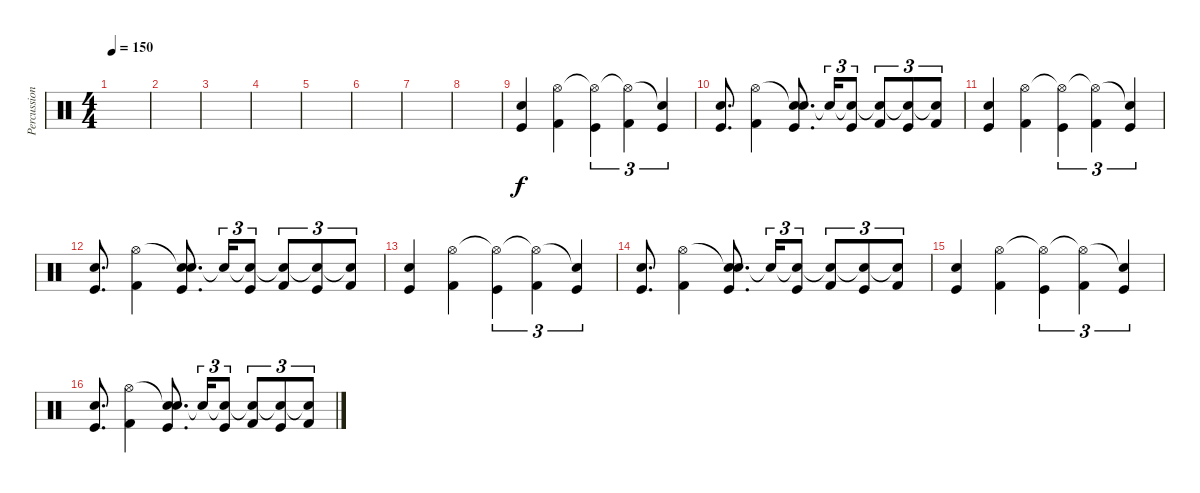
\track ("Percussion" "Percussion") {instrument percussion}
\staff {score}
\articulation defaults
\ts (4 4)
\tempo 150
\clef neutral
\ks c
|
|
|
|
|
|
|
|
("Snare (hit) 2" "Kick (hit)").4 ("Hi-Hat (open)" "Kick (hit) 2").4 ("Hi-Hat (open)"{t} "Kick (hit)").4{tu (3 2)} ("Hi-Hat (open)"{t} "Kick (hit) 2").4{tu (3 2)} ("Snare (hit)"{t} "Kick (hit)").4{tu (3 2)} |
("Snare (hit) 2" "Kick (hit)").8{d} ("Hi-Hat (open)" "Kick (hit) 2").4 ("Snare (hit)"{t} "Snare (hit) 2" "Kick (hit)").8{d} "Snare (hit)"{t}.16{tu (3 2)} ("Snare (hit)"{t} "Kick (hit)").8{tu (3 2)} ("Snare (hit)"{t} "Kick (hit) 2").8{tu (3 2)} ("Snare (hit)"{t} "Kick (hit)").8{tu (3 2)} ("Snare (hit)"{t} "Kick (hit) 2").8{tu (3 2)} |
("Snare (hit) 2" "Kick (hit)").4 ("Hi-Hat (open)" "Kick (hit) 2").4 ("Hi-Hat (open)"{t} "Kick (hit)").4{tu (3 2)} ("Hi-Hat (open)"{t} "Kick (hit) 2").4{tu (3 2)} ("Snare (hit)"{t} "Kick (hit)").4{tu (3 2)} |
("Snare (hit) 2" "Kick (hit)").8{d} ("Hi-Hat (open)" "Kick (hit) 2").4 ("Snare (hit)"{t} "Snare (hit) 2" "Kick (hit)").8{d} "Snare (hit)"{t}.16{tu (3 2)} ("Snare (hit)"{t} "Kick (hit)").8{tu (3 2)} ("Snare (hit)"{t} "Kick (hit) 2").8{tu (3 2)} ("Snare (hit)"{t} "Kick (hit)").8{tu (3 2)} ("Snare (hit)"{t} "Kick (hit) 2").8{tu (3 2)} |
("Snare (hit) 2" "Kick (hit)").4 ("Hi-Hat (open)" "Kick (hit) 2").4 ("Hi-Hat (open)"{t} "Kick (hit)").4{tu (3 2)} ("Hi-Hat (open)"{t} "Kick (hit) 2").4{tu (3 2)} ("Snare (hit)"{t} "Kick (hit)").4{tu (3 2)} |
("Snare (hit) 2" "Kick (hit)").8{d} ("Hi-Hat (open)" "Kick (hit) 2").4 ("Snare (hit)"{t} "Snare (hit) 2" "Kick (hit)").8{d} "Snare (hit)"{t}.16{tu (3 2)} ("Snare (hit)"{t} "Kick (hit)").8{tu (3 2)} ("Snare (hit)"{t} "Kick (hit) 2").8{tu (3 2)} ("Snare (hit)"{t} "Kick (hit)").8{tu (3 2)} ("Snare (hit)"{t} "Kick (hit) 2").8{tu (3 2)} |
("Snare (hit) 2" "Kick (hit)").4 ("Hi-Hat (open)" "Kick (hit) 2").4 ("Hi-Hat (open)"{t} "Kick (hit)").4{tu (3 2)} ("Hi-Hat (open)"{t} "Kick (hit) 2").4{tu (3 2)} ("Snare (hit)"{t} "Kick (hit)").4{tu (3 2)} |
("Snare (hit) 2" "Kick (hit)").8{d} ("Hi-Hat (open)" "Kick (hit) 2").4 ("Snare (hit)"{t} "Snare (hit) 2" "Kick (hit)").8{d} "Snare (hit)"{t}.16{tu (3 2)} ("Snare (hit)"{t} "Kick (hit)").8{tu (3 2)} ("Snare (hit)"{t} "Kick (hit) 2").8{tu (3 2)} ("Snare (hit)"{t} "Kick (hit)").8{tu (3 2)} ("Snare (hit)"{t} "Kick (hit) 2").8{tu (3 2)}
